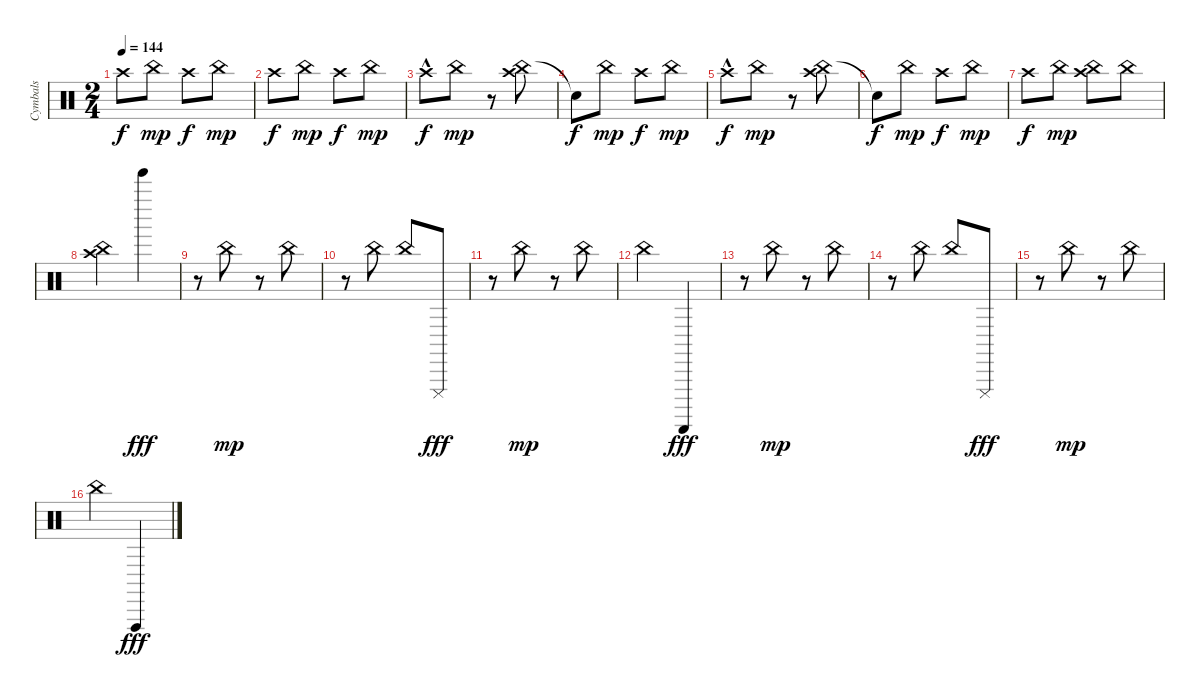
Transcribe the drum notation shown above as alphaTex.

\track ("Cymbals             " "Cymbals   ") {instrument percussion}
\staff {score}
\articulation defaults
\ts (2 4)
\tempo 144
\clef neutral
\ks c "Crash high (hit)".8{dy f} "China (hit)".8{dy mp} "Crash high (hit)".8{dy f} "China (hit)".8{dy mp}
|
"Crash high (hit)".8{dy f} "China (hit)".8{dy mp} "Crash high (hit)".8{dy f} "China (hit)".8{dy mp} |
"Crash high (hit)"{hac}.8{dy f} "China (hit)".8{dy mp} r.8 ("China (hit)" "Crash high (hit)").8 |
"Snare (hit)"{t}.8{dy f} "China (hit)".8{dy mp} "Crash high (hit)".8{dy f} "China (hit)".8{dy mp} |
"Crash high (hit)"{hac}.8{dy f} "China (hit)".8{dy mp} r.8 ("China (hit)" "Crash high (hit)").8 |
"Snare (hit)"{t}.8{dy f} "China (hit)".8{dy mp} "Crash high (hit)".8{dy f} "China (hit)".8{dy mp} |
"Crash high (hit)".8{dy f} "China (hit)".8{dy mp} ("China (hit)" "Crash high (hit)").8 "China (hit)".8 |
("China (hit)" "Crash high (hit)").4 "Tinkle Bell (hit)".4{dy fff} |
r.8 "China (hit)".8{dy mp} r.8 "China (hit)".8 |
r.8 "China (hit)".8 "China (hit)".8 "Cuica (mute)".8{dy fff} |
r.8 "China (hit)".8{dy mp} r.8 "China (hit)".8 |
"China (hit)".4 "Guiro (scrap-return)".4{dy fff} |
r.8 "China (hit)".8{dy mp} r.8 "China (hit)".8 |
r.8 "China (hit)".8 "China (hit)".8 "Cuica (mute)".8{dy fff} |
r.8 "China (hit)".8{dy mp} r.8 "China (hit)".8 |
"China (hit)".4 "Vibraslap (hit)".4{dy fff}
